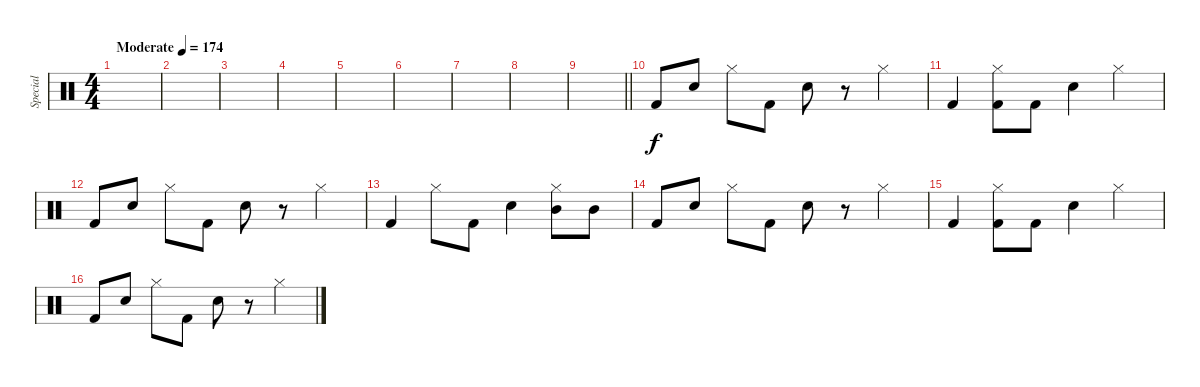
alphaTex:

\track ("Special" "Special") {instrument percussion}
\staff {score}
\articulation defaults
\ts (4 4)
\tempo (174 "Moderate")
\clef neutral
\ks c
|
|
|
|
|
|
|
|
\barLineRight lightlight
|
"Kick (hit) 2".8 "Snare (hit) 2".8 "Hi-Hat (closed)".8 "Kick (hit) 2".8 "Snare (hit) 2".8 r.8 "Hi-Hat (closed)".4 |
"Kick (hit) 2".4 ("Hi-Hat (closed)" "Kick (hit) 2").8 "Kick (hit) 2".8 "Snare (hit) 2".4 "Hi-Hat (closed)".4 |
"Kick (hit) 2".8 "Snare (hit) 2".8 "Hi-Hat (closed)".8 "Kick (hit) 2".8 "Snare (hit) 2".8 r.8 "Hi-Hat (closed)".4 |
"Kick (hit) 2".4 "Hi-Hat (closed)".8 "Kick (hit) 2".8 "Snare (hit) 2".4 ("Hi-Hat (closed)" "Mid Tom (hit)").8 "Mid Tom (hit)".8 |
"Kick (hit) 2".8 "Snare (hit) 2".8 "Hi-Hat (closed)".8 "Kick (hit) 2".8 "Snare (hit) 2".8 r.8 "Hi-Hat (closed)".4 |
"Kick (hit) 2".4 ("Hi-Hat (closed)" "Kick (hit) 2").8 "Kick (hit) 2".8 "Snare (hit) 2".4 "Hi-Hat (closed)".4 |
"Kick (hit) 2".8 "Snare (hit) 2".8 "Hi-Hat (closed)".8 "Kick (hit) 2".8 "Snare (hit) 2".8 r.8 "Hi-Hat (closed)".4
